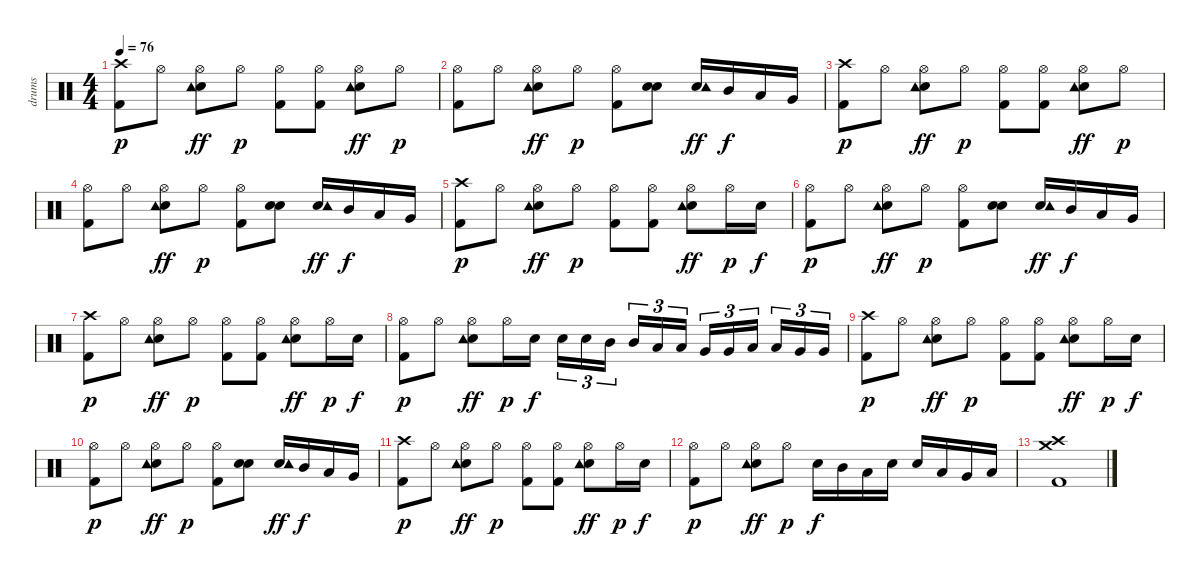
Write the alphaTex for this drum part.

\track ("drums" "drums") {instrument percussion}
\staff {score}
\articulation defaults
\ts (4 4)
\tempo 76
\clef neutral
\ks c
("Crash high (hit)" "Kick (hit) 2").8{dy p} "Hi-Hat (open)".8 ("Hi-Hat (open)" "Snare (hit) 2" "Tambourine (hit)").8{dy ff} "Hi-Hat (open)".8{dy p} ("Hi-Hat (open)" "Kick (hit) 2").8 ("Hi-Hat (open)" "Kick (hit) 2").8 ("Hi-Hat (open)" "Snare (hit) 2" "Tambourine (hit)").8{dy ff} "Hi-Hat (open)".8{dy p} |
("Hi-Hat (open)" "Kick (hit) 2").8 "Hi-Hat (open)".8 ("Hi-Hat (open)" "Snare (hit) 2" "Tambourine (hit)").8{dy ff} "Hi-Hat (open)".8{dy p} ("Hi-Hat (open)" "Kick (hit) 2").8 ("Snare (hit) 2" "Snare (hit) 2").8 ("Snare (hit) 2" "Tambourine (hit)").16{dy ff} "Mid Tom (hit)".16{dy f} "Low Tom (hit)".16 "Very Low Tom (hit)".16 |
("Crash high (hit)" "Kick (hit) 2").8{dy p} "Hi-Hat (open)".8 ("Hi-Hat (open)" "Snare (hit) 2" "Tambourine (hit)").8{dy ff} "Hi-Hat (open)".8{dy p} ("Hi-Hat (open)" "Kick (hit) 2").8 ("Hi-Hat (open)" "Kick (hit) 2").8 ("Hi-Hat (open)" "Snare (hit) 2" "Tambourine (hit)").8{dy ff} "Hi-Hat (open)".8{dy p} |
("Hi-Hat (open)" "Kick (hit) 2").8 "Hi-Hat (open)".8 ("Hi-Hat (open)" "Snare (hit) 2" "Tambourine (hit)").8{dy ff} "Hi-Hat (open)".8{dy p} ("Hi-Hat (open)" "Kick (hit) 2").8 ("Snare (hit) 2" "Snare (hit) 2").8 ("Snare (hit) 2" "Tambourine (hit)").16{dy ff} "Mid Tom (hit)".16{dy f} "Low Tom (hit)".16 "Very Low Tom (hit)".16 |
("Crash high (hit)" "Kick (hit) 2").8{dy p} "Hi-Hat (open)".8 ("Hi-Hat (open)" "Snare (hit) 2" "Tambourine (hit)").8{dy ff} "Hi-Hat (open)".8{dy p} ("Hi-Hat (open)" "Kick (hit) 2").8 ("Hi-Hat (open)" "Kick (hit) 2").8 ("Hi-Hat (open)" "Snare (hit) 2" "Tambourine (hit)").8{dy ff} "Hi-Hat (open)".16{dy p} "Snare (hit) 2".16{dy f} |
("Hi-Hat (open)" "Kick (hit) 2").8{dy p} "Hi-Hat (open)".8 ("Hi-Hat (open)" "Snare (hit) 2" "Tambourine (hit)").8{dy ff} "Hi-Hat (open)".8{dy p} ("Hi-Hat (open)" "Kick (hit) 2").8 ("Snare (hit) 2" "Snare (hit) 2").8 ("Snare (hit) 2" "Tambourine (hit)").16{dy ff} "Mid Tom (hit)".16{dy f} "Low Tom (hit)".16 "Very Low Tom (hit)".16 |
("Crash high (hit)" "Kick (hit) 2").8{dy p} "Hi-Hat (open)".8 ("Hi-Hat (open)" "Snare (hit) 2" "Tambourine (hit)").8{dy ff} "Hi-Hat (open)".8{dy p} ("Hi-Hat (open)" "Kick (hit) 2").8 ("Hi-Hat (open)" "Kick (hit) 2").8 ("Hi-Hat (open)" "Snare (hit) 2" "Tambourine (hit)").8{dy ff} "Hi-Hat (open)".16{dy p} "Snare (hit) 2".16{dy f} |
("Hi-Hat (open)" "Kick (hit) 2").8{dy p} "Hi-Hat (open)".8 ("Hi-Hat (open)" "Snare (hit) 2" "Tambourine (hit)").8{dy ff} "Hi-Hat (open)".16{dy p} "Snare (hit) 2".16{dy f} "Snare (hit) 2".16{tu (3 2)} "Snare (hit) 2".16{tu (3 2)} "Mid Tom (hit)".16{tu (3 2)} "Mid Tom (hit)".16{tu (3 2)} "Low Tom (hit)".16{tu (3 2)} "Low Tom (hit)".16{tu (3 2)} "Very Low Tom (hit)".16{tu (3 2)} "Very Low Tom (hit)".16{tu (3 2)} "Low Floor Tom (hit)".16{tu (3 2)} "Low Floor Tom (hit)".16{tu (3 2)} "Very Low Tom (hit)".16{tu (3 2)} "Very Low Tom (hit)".16{tu (3 2)} |
("Crash high (hit)" "Kick (hit) 2").8{dy p} "Hi-Hat (open)".8 ("Hi-Hat (open)" "Snare (hit) 2" "Tambourine (hit)").8{dy ff} "Hi-Hat (open)".8{dy p} ("Hi-Hat (open)" "Kick (hit) 2").8 ("Hi-Hat (open)" "Kick (hit) 2").8 ("Hi-Hat (open)" "Snare (hit) 2" "Tambourine (hit)").8{dy ff} "Hi-Hat (open)".16{dy p} "Snare (hit) 2".16{dy f} |
("Hi-Hat (open)" "Kick (hit) 2").8{dy p} "Hi-Hat (open)".8 ("Hi-Hat (open)" "Snare (hit) 2" "Tambourine (hit)").8{dy ff} "Hi-Hat (open)".8{dy p} ("Hi-Hat (open)" "Kick (hit) 2").8 ("Snare (hit) 2" "Snare (hit) 2").8 ("Snare (hit) 2" "Tambourine (hit)").16{dy ff} "Mid Tom (hit)".16{dy f} "Low Tom (hit)".16 "Very Low Tom (hit)".16 |
("Crash high (hit)" "Kick (hit) 2").8{dy p} "Hi-Hat (open)".8 ("Hi-Hat (open)" "Snare (hit) 2" "Tambourine (hit)").8{dy ff} "Hi-Hat (open)".8{dy p} ("Hi-Hat (open)" "Kick (hit) 2").8 ("Hi-Hat (open)" "Kick (hit) 2").8 ("Hi-Hat (open)" "Snare (hit) 2" "Tambourine (hit)").8{dy ff} "Hi-Hat (open)".16{dy p} "Snare (hit) 2".16{dy f} |
("Hi-Hat (open)" "Kick (hit) 2").8{dy p} "Hi-Hat (open)".8 ("Hi-Hat (open)" "Snare (hit) 2" "Tambourine (hit)").8{dy ff} "Hi-Hat (open)".8{dy p} "Snare (hit) 2".16{dy f} "Mid Tom (hit)".16 "Low Tom (hit)".16 "Snare (hit) 2".16 "Snare (hit) 2".16 "Low Tom (hit)".16 "Very Low Tom (hit)".16 "Low Floor Tom (hit)".16 |
("Crash medium (hit)" "Crash high (hit)" "Kick (hit) 2").1
